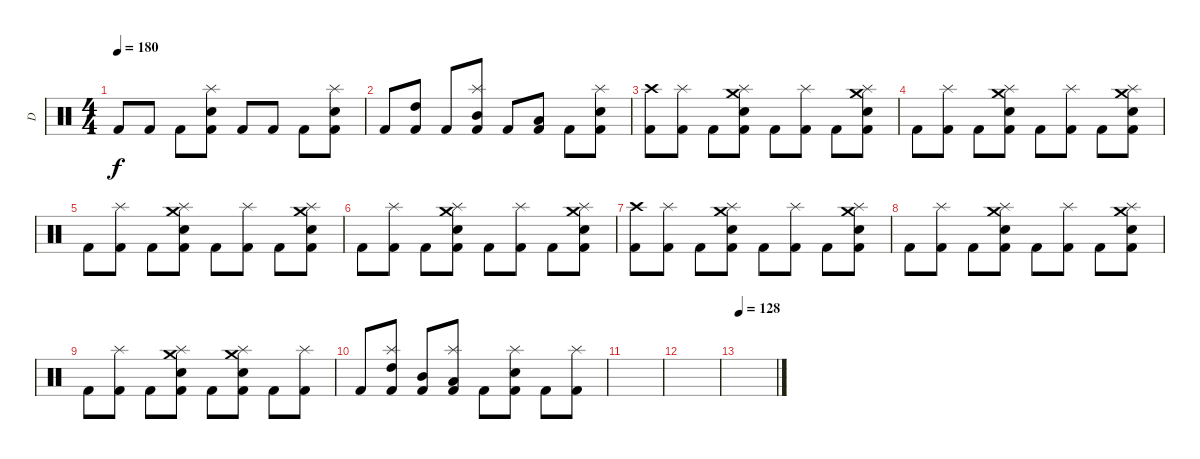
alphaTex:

\track ("D" "D") {instrument percussion}
\staff {score}
\articulation defaults
\ts (4 4)
\tempo 180
\clef neutral
\ks c "Kick (hit) 2".8{dy f} "Kick (hit) 2".8 "Kick (hit) 2".8
("Electric Snare (hit)" "Kick (hit) 2" "Splash (hit)").8 "Kick (hit) 2".8 "Kick (hit) 2".8 "Kick (hit) 2".8 ("Electric Snare (hit)" "Kick (hit) 2" "Splash (hit)").8 |
"Kick (hit) 2".8 ("High Tom (hit)" "Kick (hit) 2").8 "Kick (hit) 2".8 ("Mid Tom (hit)" "Kick (hit) 2" "Splash (hit)").8 "Kick (hit) 2".8 ("Low Tom (hit)" "Kick (hit) 2").8 "Kick (hit) 2".8 ("Electric Snare (hit)" "Kick (hit) 2" "Splash (hit)").8 |
("Crash high (hit)" "Kick (hit) 2").8 ("Kick (hit) 2" "Splash (hit)").8 "Kick (hit) 2".8 ("Crash medium (hit)" "Electric Snare (hit)" "Kick (hit) 2" "Splash (hit)").8 "Kick (hit) 2".8 ("Kick (hit) 2" "Splash (hit)").8 "Kick (hit) 2".8 ("Crash medium (hit)" "Electric Snare (hit)" "Kick (hit) 2" "Splash (hit)").8 |
"Kick (hit) 2".8 ("Kick (hit) 2" "Splash (hit)").8 "Kick (hit) 2".8 ("Crash medium (hit)" "Electric Snare (hit)" "Kick (hit) 2" "Splash (hit)").8 "Kick (hit) 2".8 ("Kick (hit) 2" "Splash (hit)").8 "Kick (hit) 2".8 ("Crash medium (hit)" "Electric Snare (hit)" "Kick (hit) 2" "Splash (hit)").8 |
"Kick (hit) 2".8 ("Kick (hit) 2" "Splash (hit)").8 "Kick (hit) 2".8 ("Crash medium (hit)" "Electric Snare (hit)" "Kick (hit) 2" "Splash (hit)").8 "Kick (hit) 2".8 ("Kick (hit) 2" "Splash (hit)").8 "Kick (hit) 2".8 ("Crash medium (hit)" "Electric Snare (hit)" "Kick (hit) 2" "Splash (hit)").8 |
"Kick (hit) 2".8 ("Kick (hit) 2" "Splash (hit)").8 "Kick (hit) 2".8 ("Crash medium (hit)" "Electric Snare (hit)" "Kick (hit) 2" "Splash (hit)").8 "Kick (hit) 2".8 ("Kick (hit) 2" "Splash (hit)").8 "Kick (hit) 2".8 ("Crash medium (hit)" "Electric Snare (hit)" "Kick (hit) 2" "Splash (hit)").8 |
("Crash high (hit)" "Kick (hit) 2").8 ("Kick (hit) 2" "Splash (hit)").8 "Kick (hit) 2".8 ("Crash medium (hit)" "Electric Snare (hit)" "Kick (hit) 2" "Splash (hit)").8 "Kick (hit) 2".8 ("Kick (hit) 2" "Splash (hit)").8 "Kick (hit) 2".8 ("Crash medium (hit)" "Electric Snare (hit)" "Kick (hit) 2" "Splash (hit)").8 |
"Kick (hit) 2".8 ("Kick (hit) 2" "Splash (hit)").8 "Kick (hit) 2".8 ("Crash medium (hit)" "Electric Snare (hit)" "Kick (hit) 2" "Splash (hit)").8 "Kick (hit) 2".8 ("Kick (hit) 2" "Splash (hit)").8 "Kick (hit) 2".8 ("Crash medium (hit)" "Electric Snare (hit)" "Kick (hit) 2" "Splash (hit)").8 |
"Kick (hit) 2".8 ("Kick (hit) 2" "Splash (hit)").8 "Kick (hit) 2".8 ("Crash medium (hit)" "Electric Snare (hit)" "Kick (hit) 2" "Splash (hit)").8 "Kick (hit) 2".8 ("Crash medium (hit)" "Electric Snare (hit)" "Kick (hit) 2" "Splash (hit)").8 "Kick (hit) 2".8 ("Kick (hit) 2" "Splash (hit)").8 |
"Kick (hit) 2".8 ("High Tom (hit)" "Kick (hit) 2" "Splash (hit)").8 ("Mid Tom (hit)" "Kick (hit) 2").8 ("Low Tom (hit)" "Kick (hit) 2" "Splash (hit)").8 "Kick (hit) 2".8 ("Electric Snare (hit)" "Kick (hit) 2" "Splash (hit)").8 "Kick (hit) 2".8 ("Kick (hit) 2" "Splash (hit)").8 |
|
|
\tempo 128
